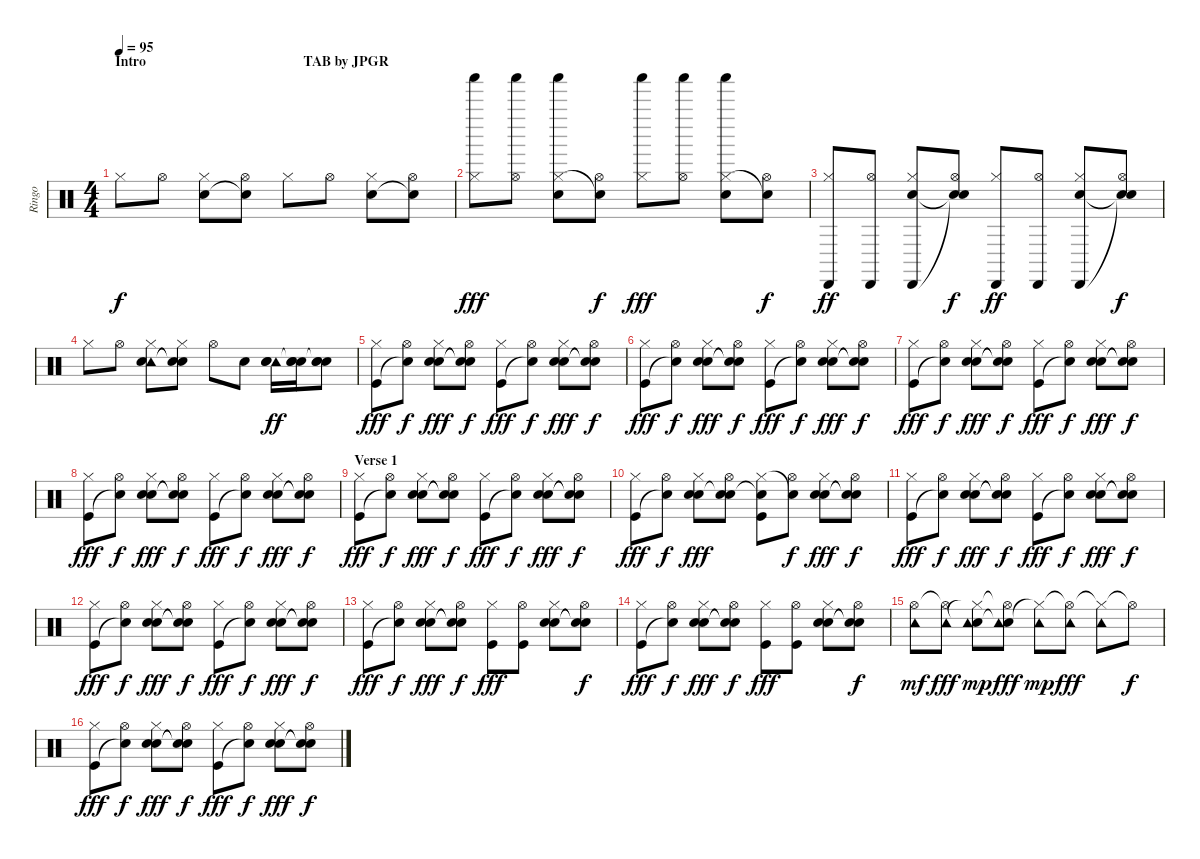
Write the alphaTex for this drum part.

\track ("Ringo" "Ringo") {instrument percussion}
\staff {score}
\articulation defaults
\ts (4 4)
\section ("" "Intro                                             TAB by JPGR")
\tempo 95
\clef neutral
\ks c "Hi-Hat (closed)".8{dy f} "Hi-Hat (open)".8
("Hi-Hat (closed)" "Snare (hit) 2").8 ("Hi-Hat (open)" "Snare (hit)"{t}).8 "Hi-Hat (closed)".8 "Hi-Hat (open)".8 ("Hi-Hat (closed)" "Snare (hit) 2").8 ("Hi-Hat (open)" "Snare (hit)"{t}).8 |
("Shaker (hit)" "Hi-Hat (closed)").8{dy fff} ("Shaker (hit)" "Hi-Hat (open)").8 ("Shaker (hit)" "Hi-Hat (closed)" "Snare (hit) 2").8 ("Hi-Hat (open)" "Snare (hit)"{t}).8{dy f} ("Shaker (hit)" "Hi-Hat (closed)").8{dy fff} ("Shaker (hit)" "Hi-Hat (open)").8 ("Shaker (hit)" "Hi-Hat (closed)" "Snare (hit) 2").8 ("Hi-Hat (open)" "Snare (hit)"{t}).8{dy f} |
("Cabasa (hit)" "Hi-Hat (closed)").8{dy ff} ("Cabasa (hit)" "Hi-Hat (open)").8 ("Cabasa (hit)" "Hi-Hat (closed)" "Snare (hit) 2").8 ("Snare (hit)"{t} "Hi-Hat (open)" "Snare (hit)"{t}).8{dy f} ("Cabasa (hit)" "Hi-Hat (closed)").8{dy ff} ("Cabasa (hit)" "Hi-Hat (open)").8 ("Cabasa (hit)" "Hi-Hat (closed)" "Snare (hit) 2").8 ("Snare (hit)"{t} "Hi-Hat (open)" "Snare (hit)"{t}).8{dy f} |
"Hi-Hat (closed)".8 "Hi-Hat (open)".8 ("Tambourine (hit)" "Hi-Hat (closed)" "Snare (hit) 2").8 ("Snare (hit)"{t} "Hi-Hat (closed)" "Snare (hit)"{t}).8 "Hi-Hat (open)".8 "Snare (hit) 2".8 ("Tambourine (hit)" "Snare (hit) 2" "Hand Clap (hit)").16{dy ff} ("Snare (hit)"{t} "Snare (hit) 2" "Hand Clap (hit)").16 ("Snare (hit)"{t} "Snare (hit) 2" "Hand Clap (hit)").8 |
("Hi-Hat (closed)" "Kick (hit)").8{dy fff} ("Hi-Hat (open)" "Snare (hit)"{t}).8{dy f} ("Hand Clap (hit)" "Hi-Hat (closed)" "Snare (hit) 2").8{dy fff} ("Snare (hit)"{t} "Hi-Hat (open)" "Snare (hit)"{t}).8{dy f} ("Hi-Hat (closed)" "Kick (hit)").8{dy fff} ("Hi-Hat (open)" "Snare (hit)"{t}).8{dy f} ("Hand Clap (hit)" "Hi-Hat (closed)" "Snare (hit) 2").8{dy fff} ("Snare (hit)"{t} "Hi-Hat (open)" "Snare (hit)"{t}).8{dy f} |
("Hi-Hat (closed)" "Kick (hit)").8{dy fff} ("Hi-Hat (open)" "Snare (hit)"{t}).8{dy f} ("Hand Clap (hit)" "Hi-Hat (closed)" "Snare (hit) 2").8{dy fff} ("Snare (hit)"{t} "Hi-Hat (open)" "Snare (hit)"{t}).8{dy f} ("Hi-Hat (closed)" "Kick (hit)").8{dy fff} ("Hi-Hat (open)" "Snare (hit)"{t}).8{dy f} ("Hand Clap (hit)" "Hi-Hat (closed)" "Snare (hit) 2").8{dy fff} ("Snare (hit)"{t} "Hi-Hat (open)" "Snare (hit)"{t}).8{dy f} |
("Hi-Hat (closed)" "Kick (hit)").8{dy fff} ("Hi-Hat (open)" "Snare (hit)"{t}).8{dy f} ("Hand Clap (hit)" "Hi-Hat (closed)" "Snare (hit) 2").8{dy fff} ("Snare (hit)"{t} "Hi-Hat (open)" "Snare (hit)"{t}).8{dy f} ("Hi-Hat (closed)" "Kick (hit)").8{dy fff} ("Hi-Hat (open)" "Snare (hit)"{t}).8{dy f} ("Hand Clap (hit)" "Hi-Hat (closed)" "Snare (hit) 2").8{dy fff} ("Snare (hit)"{t} "Hi-Hat (open)" "Snare (hit)"{t}).8{dy f} |
("Hi-Hat (closed)" "Kick (hit)").8{dy fff} ("Hi-Hat (open)" "Snare (hit)"{t}).8{dy f} ("Hand Clap (hit)" "Hi-Hat (closed)" "Snare (hit) 2").8{dy fff} ("Snare (hit)"{t} "Hi-Hat (open)" "Snare (hit)"{t}).8{dy f} ("Hi-Hat (closed)" "Kick (hit)").8{dy fff} ("Hi-Hat (open)" "Snare (hit)"{t}).8{dy f} ("Hand Clap (hit)" "Hi-Hat (closed)" "Snare (hit) 2").8{dy fff} ("Snare (hit)"{t} "Hi-Hat (open)" "Snare (hit)"{t}).8{dy f} |
\section ("" "Verse 1")
("Hi-Hat (closed)" "Kick (hit)").8{dy fff} ("Hi-Hat (open)" "Snare (hit)"{t}).8{dy f} ("Hand Clap (hit)" "Hi-Hat (closed)" "Snare (hit) 2").8{dy fff} ("Snare (hit)"{t} "Hi-Hat (open)" "Snare (hit)"{t}).8{dy f} ("Hi-Hat (closed)" "Kick (hit)").8{dy fff} ("Hi-Hat (open)" "Snare (hit)"{t}).8{dy f} ("Hand Clap (hit)" "Hi-Hat (closed)" "Snare (hit) 2").8{dy fff} ("Snare (hit)"{t} "Hi-Hat (open)" "Snare (hit)"{t}).8{dy f} |
("Hi-Hat (closed)" "Kick (hit)").8{dy fff} ("Hi-Hat (open)" "Snare (hit)"{t}).8{dy f} ("Hand Clap (hit)" "Hi-Hat (closed)" "Snare (hit) 2").8{dy fff} ("Hand Clap (hit)" "Hi-Hat (open)" "Snare (hit)"{t}).8 ("Snare (hit)"{t} "Hi-Hat (closed)" "Kick (hit)").8 ("Hi-Hat (open)" "Snare (hit)"{t}).8{dy f} ("Hand Clap (hit)" "Hi-Hat (closed)" "Snare (hit) 2").8{dy fff} ("Snare (hit)"{t} "Hi-Hat (open)" "Snare (hit)"{t}).8{dy f} |
("Hi-Hat (closed)" "Kick (hit)").8{dy fff} ("Hi-Hat (open)" "Snare (hit)"{t}).8{dy f} ("Hand Clap (hit)" "Hi-Hat (closed)" "Snare (hit) 2").8{dy fff} ("Snare (hit)"{t} "Hi-Hat (open)" "Snare (hit)"{t}).8{dy f} ("Hi-Hat (closed)" "Kick (hit)").8{dy fff} ("Hi-Hat (open)" "Snare (hit)"{t}).8{dy f} ("Hand Clap (hit)" "Hi-Hat (closed)" "Snare (hit) 2").8{dy fff} ("Snare (hit)"{t} "Hi-Hat (open)" "Snare (hit)"{t}).8{dy f} |
("Hi-Hat (closed)" "Kick (hit)").8{dy fff} ("Hi-Hat (open)" "Snare (hit)"{t}).8{dy f} ("Hand Clap (hit)" "Hi-Hat (closed)" "Snare (hit) 2").8{dy fff} ("Snare (hit)"{t} "Hi-Hat (open)" "Snare (hit)"{t}).8{dy f} ("Hi-Hat (closed)" "Kick (hit)").8{dy fff} ("Hi-Hat (open)" "Snare (hit)"{t}).8{dy f} ("Hand Clap (hit)" "Hi-Hat (closed)" "Snare (hit) 2").8{dy fff} ("Snare (hit)"{t} "Hi-Hat (open)" "Snare (hit)"{t}).8{dy f} |
("Hi-Hat (closed)" "Kick (hit)").8{dy fff} ("Hi-Hat (open)" "Snare (hit)"{t}).8{dy f} ("Hand Clap (hit)" "Hi-Hat (closed)" "Snare (hit) 2").8{dy fff} ("Snare (hit)"{t} "Hi-Hat (open)" "Snare (hit)"{t}).8{dy f} ("Hi-Hat (closed)" "Kick (hit)").8{dy fff} ("Hi-Hat (open)" "Kick (hit)").8 ("Hand Clap (hit)" "Hi-Hat (closed)" "Snare (hit) 2").8 ("Snare (hit)"{t} "Hi-Hat (open)" "Snare (hit)"{t}).8{dy f} |
("Hi-Hat (closed)" "Kick (hit)").8{dy fff} ("Hi-Hat (open)" "Snare (hit)"{t}).8{dy f} ("Hand Clap (hit)" "Hi-Hat (closed)" "Snare (hit) 2").8{dy fff} ("Snare (hit)"{t} "Hi-Hat (open)" "Snare (hit)"{t}).8{dy f} ("Hi-Hat (closed)" "Kick (hit)").8{dy fff} ("Hi-Hat (open)" "Kick (hit)").8 ("Hand Clap (hit)" "Hi-Hat (closed)" "Snare (hit) 2").8 ("Snare (hit)"{t} "Hi-Hat (open)" "Snare (hit)"{t}).8{dy f} |
("Hi-Hat (open)" "Tambourine (hit)").8{dy mf} ("Hi-Hat (open)"{t} "Tambourine (hit)").8{dy fff} ("Hand Clap (hit)" "Hi-Hat (closed)"{t} "Tambourine (hit)").8{dy mp} ("Snare (hit)"{t} "Hi-Hat (open)"{t} "Tambourine (hit)").8{dy fff} ("Hi-Hat (closed)"{t} "Tambourine (hit)").8{dy mp} ("Hi-Hat (open)"{t} "Tambourine (hit)").8{dy fff} ("Hi-Hat (closed)"{t} "Tambourine (hit)").8 "Hi-Hat (open)"{t}.8{dy f} |
("Hi-Hat (closed)" "Kick (hit)").8{dy fff} ("Hi-Hat (open)" "Snare (hit)"{t}).8{dy f} ("Hand Clap (hit)" "Hi-Hat (closed)" "Snare (hit) 2").8{dy fff} ("Snare (hit)"{t} "Hi-Hat (open)" "Snare (hit)"{t}).8{dy f} ("Hi-Hat (closed)" "Kick (hit)").8{dy fff} ("Hi-Hat (open)" "Snare (hit)"{t}).8{dy f} ("Hand Clap (hit)" "Hi-Hat (closed)" "Snare (hit) 2").8{dy fff} ("Snare (hit)"{t} "Hi-Hat (open)" "Snare (hit)"{t}).8{dy f}
